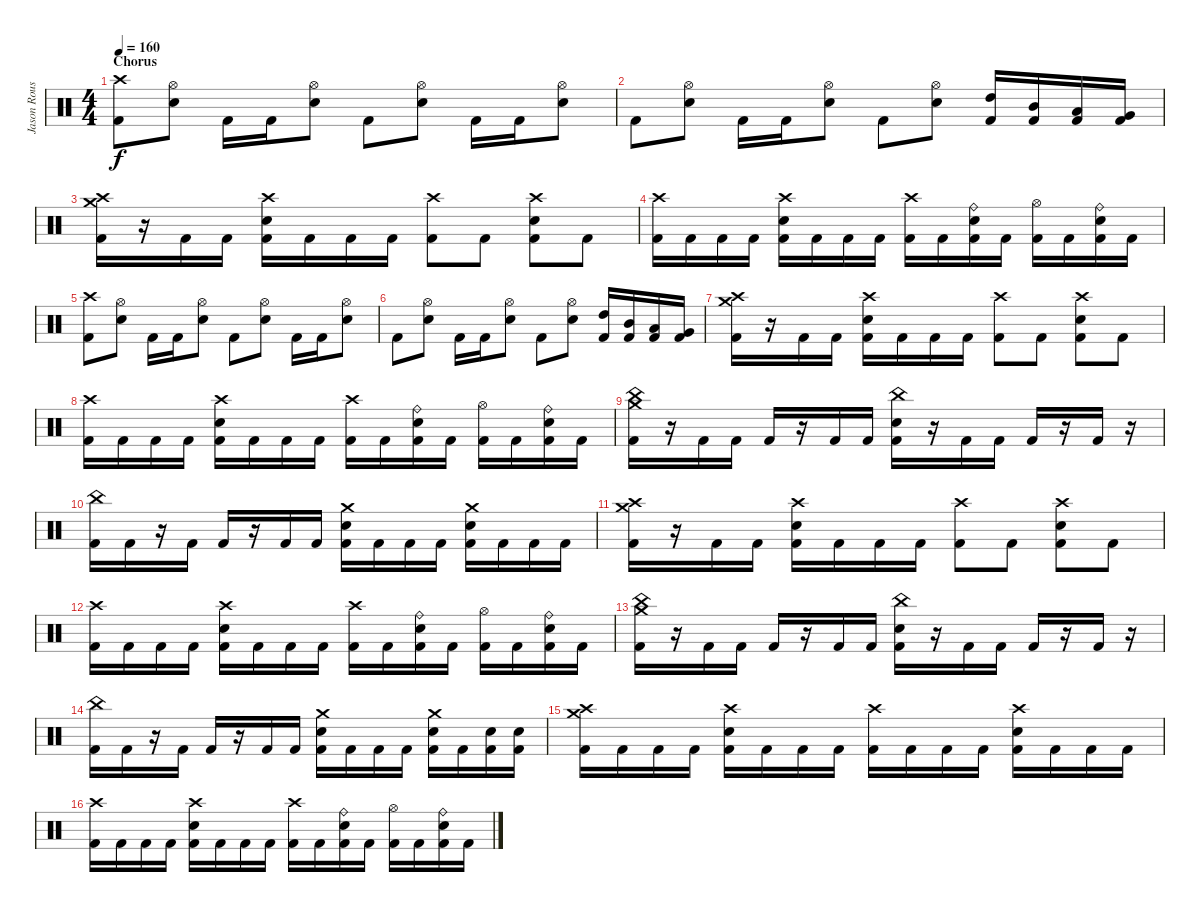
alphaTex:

\track ("Jason Rousseau" "Jason Rous") {instrument percussion}
\staff {score}
\articulation defaults
\ts (4 4)
\section ("" "Chorus")
\tempo 160
\clef neutral
\ks c
("Crash high (hit)" "Kick (hit) 2").8{dy f} ("Hi-Hat (open)" "Electric Snare (hit)").8 "Kick (hit) 2".16 "Kick (hit) 2".16 ("Hi-Hat (open)" "Electric Snare (hit)").8 "Kick (hit) 2".8 ("Hi-Hat (open)" "Electric Snare (hit)").8 "Kick (hit) 2".16 "Kick (hit) 2".16 ("Hi-Hat (open)" "Electric Snare (hit)").8 |
"Kick (hit) 2".8 ("Hi-Hat (open)" "Electric Snare (hit)").8 "Kick (hit) 2".16 "Kick (hit) 2".16 ("Hi-Hat (open)" "Electric Snare (hit)").8 "Kick (hit) 2".8 ("Hi-Hat (open)" "Electric Snare (hit)").8 ("High Tom (hit)" "Kick (hit) 2").16 ("Mid Tom (hit)" "Kick (hit) 2").16 ("Low Tom (hit)" "Kick (hit) 2").16 ("Very Low Tom (hit)" "Kick (hit) 2").16 |
("Crash high (hit)" "Crash medium (hit)" "Kick (hit) 2").16 r.16 "Kick (hit) 2".16 "Kick (hit) 2".16 ("Crash high (hit)" "Electric Snare (hit)" "Kick (hit) 2").16 "Kick (hit) 2".16 "Kick (hit) 2".16 "Kick (hit) 2".16 ("Crash high (hit)" "Kick (hit) 2").8 "Kick (hit) 2".8 ("Crash high (hit)" "Electric Snare (hit)" "Kick (hit) 2").8 "Kick (hit) 2".8 |
("Crash high (hit)" "Kick (hit) 2").16 "Kick (hit) 2".16 "Kick (hit) 2".16 "Kick (hit) 2".16 ("Crash high (hit)" "Electric Snare (hit)" "Kick (hit) 2").16 "Kick (hit) 2".16 "Kick (hit) 2".16 "Kick (hit) 2".16 ("Crash high (hit)" "Kick (hit) 2").16 "Kick (hit) 2".16 ("Ride (bell)" "Electric Snare (hit)" "Kick (hit) 2").16 "Kick (hit) 2".16 ("Hi-Hat (open)" "Kick (hit) 2").16 "Kick (hit) 2".16 ("Ride (bell)" "Electric Snare (hit)" "Kick (hit) 2").16 "Kick (hit) 2".16 |
("Crash high (hit)" "Kick (hit) 2").8 ("Hi-Hat (open)" "Electric Snare (hit)").8 "Kick (hit) 2".16 "Kick (hit) 2".16 ("Hi-Hat (open)" "Electric Snare (hit)").8 "Kick (hit) 2".8 ("Hi-Hat (open)" "Electric Snare (hit)").8 "Kick (hit) 2".16 "Kick (hit) 2".16 ("Hi-Hat (open)" "Electric Snare (hit)").8 |
"Kick (hit) 2".8 ("Hi-Hat (open)" "Electric Snare (hit)").8 "Kick (hit) 2".16 "Kick (hit) 2".16 ("Hi-Hat (open)" "Electric Snare (hit)").8 "Kick (hit) 2".8 ("Hi-Hat (open)" "Electric Snare (hit)").8 ("High Tom (hit)" "Kick (hit) 2").16 ("Mid Tom (hit)" "Kick (hit) 2").16 ("Low Tom (hit)" "Kick (hit) 2").16 ("Very Low Tom (hit)" "Kick (hit) 2").16 |
("Crash high (hit)" "Crash medium (hit)" "Kick (hit) 2").16 r.16 "Kick (hit) 2".16 "Kick (hit) 2".16 ("Crash high (hit)" "Electric Snare (hit)" "Kick (hit) 2").16 "Kick (hit) 2".16 "Kick (hit) 2".16 "Kick (hit) 2".16 ("Crash high (hit)" "Kick (hit) 2").8 "Kick (hit) 2".8 ("Crash high (hit)" "Electric Snare (hit)" "Kick (hit) 2").8 "Kick (hit) 2".8 |
("Crash high (hit)" "Kick (hit) 2").16 "Kick (hit) 2".16 "Kick (hit) 2".16 "Kick (hit) 2".16 ("Crash high (hit)" "Electric Snare (hit)" "Kick (hit) 2").16 "Kick (hit) 2".16 "Kick (hit) 2".16 "Kick (hit) 2".16 ("Crash high (hit)" "Kick (hit) 2").16 "Kick (hit) 2".16 ("Ride (bell)" "Electric Snare (hit)" "Kick (hit) 2").16 "Kick (hit) 2".16 ("Hi-Hat (open)" "Kick (hit) 2").16 "Kick (hit) 2".16 ("Ride (bell)" "Electric Snare (hit)" "Kick (hit) 2").16 "Kick (hit) 2".16 |
("Crash medium (hit)" "China (hit)" "Kick (hit) 2").16 r.16 "Kick (hit) 2".16 "Kick (hit) 2".16 "Kick (hit) 2".16 r.16 "Kick (hit) 2".16 "Kick (hit) 2".16 ("China (hit)" "Electric Snare (hit)" "Kick (hit) 2").16 r.16 "Kick (hit) 2".16 "Kick (hit) 2".16 "Kick (hit) 2".16 r.16 "Kick (hit) 2".16 r.16 |
("China (hit)" "Kick (hit) 2").16 "Kick (hit) 2".16 r.16 "Kick (hit) 2".16 "Kick (hit) 2".16 r.16 "Kick (hit) 2".16 "Kick (hit) 2".16 ("Crash medium (hit)" "Electric Snare (hit)" "Kick (hit) 2").16 "Kick (hit) 2".16 "Kick (hit) 2".16 "Kick (hit) 2".16 ("Crash medium (hit)" "Electric Snare (hit)" "Kick (hit) 2").16 "Kick (hit) 2".16 "Kick (hit) 2".16 "Kick (hit) 2".16 |
("Crash high (hit)" "Crash medium (hit)" "Kick (hit) 2").16 r.16 "Kick (hit) 2".16 "Kick (hit) 2".16 ("Crash high (hit)" "Electric Snare (hit)" "Kick (hit) 2").16 "Kick (hit) 2".16 "Kick (hit) 2".16 "Kick (hit) 2".16 ("Crash high (hit)" "Kick (hit) 2").8 "Kick (hit) 2".8 ("Crash high (hit)" "Electric Snare (hit)" "Kick (hit) 2").8 "Kick (hit) 2".8 |
("Crash high (hit)" "Kick (hit) 2").16 "Kick (hit) 2".16 "Kick (hit) 2".16 "Kick (hit) 2".16 ("Crash high (hit)" "Electric Snare (hit)" "Kick (hit) 2").16 "Kick (hit) 2".16 "Kick (hit) 2".16 "Kick (hit) 2".16 ("Crash high (hit)" "Kick (hit) 2").16 "Kick (hit) 2".16 ("Ride (bell)" "Electric Snare (hit)" "Kick (hit) 2").16 "Kick (hit) 2".16 ("Hi-Hat (open)" "Kick (hit) 2").16 "Kick (hit) 2".16 ("Ride (bell)" "Electric Snare (hit)" "Kick (hit) 2").16 "Kick (hit) 2".16 |
("Crash medium (hit)" "China (hit)" "Kick (hit) 2").16 r.16 "Kick (hit) 2".16 "Kick (hit) 2".16 "Kick (hit) 2".16 r.16 "Kick (hit) 2".16 "Kick (hit) 2".16 ("China (hit)" "Electric Snare (hit)" "Kick (hit) 2").16 r.16 "Kick (hit) 2".16 "Kick (hit) 2".16 "Kick (hit) 2".16 r.16 "Kick (hit) 2".16 r.16 |
("China (hit)" "Kick (hit) 2").16 "Kick (hit) 2".16 r.16 "Kick (hit) 2".16 "Kick (hit) 2".16 r.16 "Kick (hit) 2".16 "Kick (hit) 2".16 ("Crash medium (hit)" "Electric Snare (hit)" "Kick (hit) 2").16 "Kick (hit) 2".16 "Kick (hit) 2".16 "Kick (hit) 2".16 ("Crash medium (hit)" "Electric Snare (hit)" "Kick (hit) 2").16 "Kick (hit) 2".16 ("Electric Snare (hit)" "Kick (hit) 2").16 ("Electric Snare (hit)" "Kick (hit) 2").16 |
("Crash high (hit)" "Crash medium (hit)" "Kick (hit) 2").16 "Kick (hit) 2".16 "Kick (hit) 2".16 "Kick (hit) 2".16 ("Crash high (hit)" "Electric Snare (hit)" "Kick (hit) 2").16 "Kick (hit) 2".16 "Kick (hit) 2".16 "Kick (hit) 2".16 ("Crash high (hit)" "Kick (hit) 2").16 "Kick (hit) 2".16 "Kick (hit) 2".16 "Kick (hit) 2".16 ("Crash high (hit)" "Electric Snare (hit)" "Kick (hit) 2").16 "Kick (hit) 2".16 "Kick (hit) 2".16 "Kick (hit) 2".16 |
("Crash high (hit)" "Kick (hit) 2").16 "Kick (hit) 2".16 "Kick (hit) 2".16 "Kick (hit) 2".16 ("Crash high (hit)" "Electric Snare (hit)" "Kick (hit) 2").16 "Kick (hit) 2".16 "Kick (hit) 2".16 "Kick (hit) 2".16 ("Crash high (hit)" "Kick (hit) 2").16 "Kick (hit) 2".16 ("Ride (bell)" "Electric Snare (hit)" "Kick (hit) 2").16 "Kick (hit) 2".16 ("Hi-Hat (open)" "Kick (hit) 2").16 "Kick (hit) 2".16 ("Ride (bell)" "Electric Snare (hit)" "Kick (hit) 2").16 "Kick (hit) 2".16
